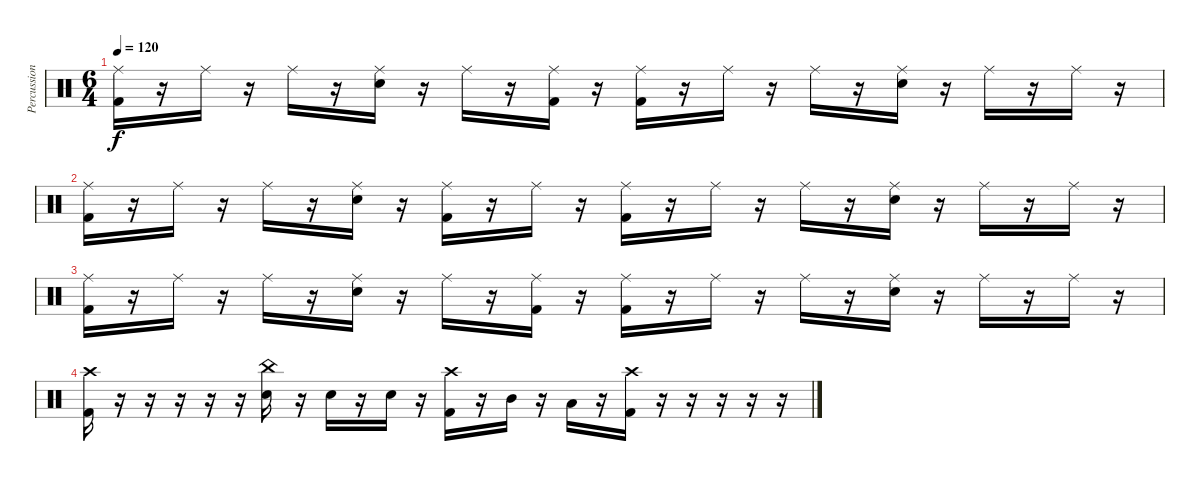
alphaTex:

\track ("Percussion" "Percussion") {instrument percussion}
\staff {score}
\articulation defaults
\ts (6 4)
\tempo 120
\clef neutral
\ks c
("Ride (middle)" "Kick (hit) 2").16{dy f} r.16 "Ride (middle)".16 r.16 "Ride (middle)".16 r.16 ("Ride (middle)" "Electric Snare (hit)").16 r.16 "Ride (middle)".16 r.16 ("Ride (middle)" "Kick (hit) 2").16 r.16 ("Ride (middle)" "Kick (hit) 2").16 r.16 "Ride (middle)".16 r.16 "Ride (middle)".16 r.16 ("Ride (middle)" "Electric Snare (hit)").16 r.16 "Ride (middle)".16 r.16 "Ride (middle)".16 r.16 |
("Ride (middle)" "Kick (hit) 2").16 r.16 "Ride (middle)".16 r.16 "Ride (middle)".16 r.16 ("Ride (middle)" "Electric Snare (hit)").16 r.16 ("Ride (middle)" "Kick (hit) 2").16 r.16 "Ride (middle)".16 r.16 ("Ride (middle)" "Kick (hit) 2").16 r.16 "Ride (middle)".16 r.16 "Ride (middle)".16 r.16 ("Ride (middle)" "Electric Snare (hit)").16 r.16 "Ride (middle)".16 r.16 "Ride (middle)".16 r.16 |
("Ride (middle)" "Kick (hit) 2").16 r.16 "Ride (middle)".16 r.16 "Ride (middle)".16 r.16 ("Ride (middle)" "Electric Snare (hit)").16 r.16 "Ride (middle)".16 r.16 ("Ride (middle)" "Kick (hit) 2").16 r.16 ("Ride (middle)" "Kick (hit) 2").16 r.16 "Ride (middle)".16 r.16 "Ride (middle)".16 r.16 ("Ride (middle)" "Electric Snare (hit)").16 r.16 "Ride (middle)".16 r.16 "Ride (middle)".16 r.16 |
("Crash high (hit)" "Kick (hit) 2").16 r.16 r.16 r.16 r.16 r.16 ("China (hit)" "Electric Snare (hit)").16 r.16 "Electric Snare (hit)".16 r.16 "Electric Snare (hit)".16 r.16 ("Crash high (hit)" "Kick (hit) 2").16 r.16 "Mid Tom (hit)".16 r.16 "Low Tom (hit)".16 r.16 ("Kick (hit) 2" "Crash high (hit)").16 r.16 r.16 r.16 r.16 r.16
